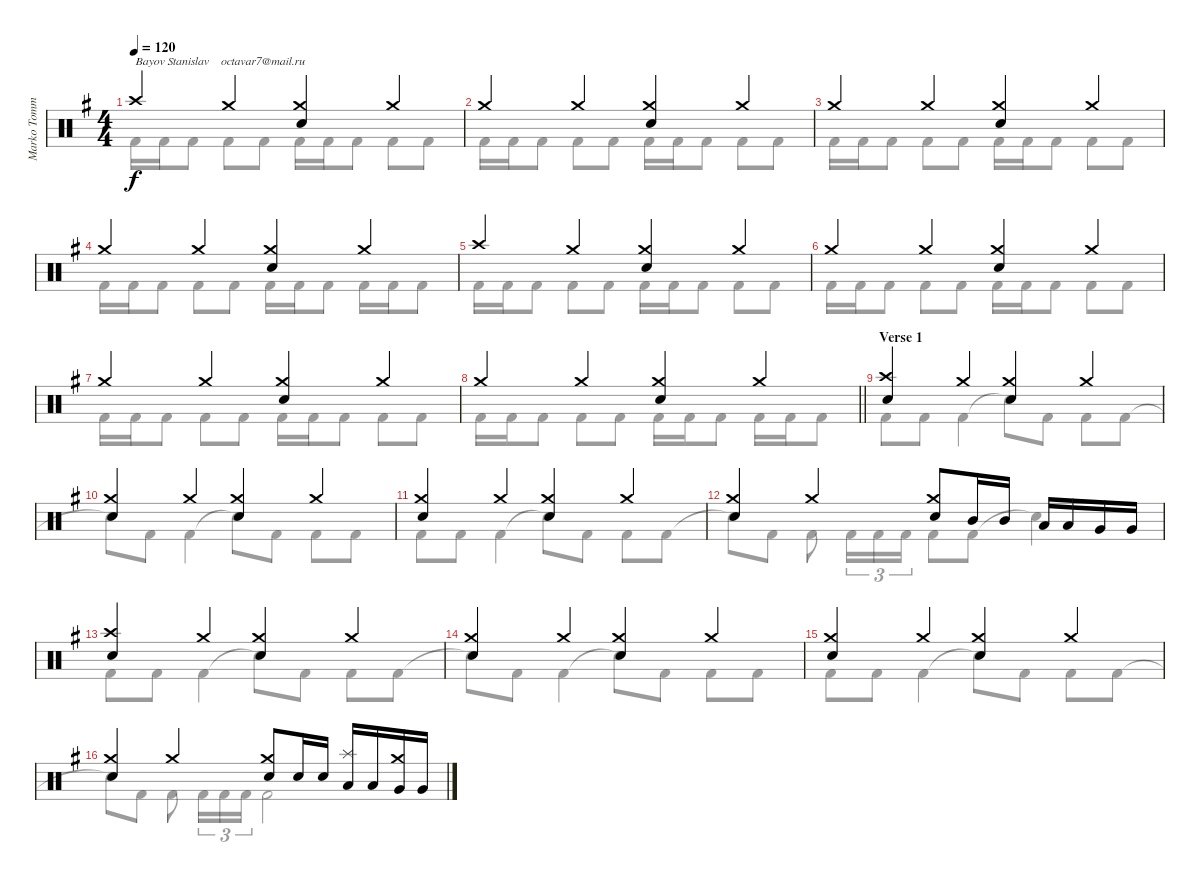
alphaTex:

\track ("Marko Tommila (drums)" "Marko Tomm") {instrument percussion}
\staff {score}
\articulation defaults
\voice
\ts (4 4)
\tempo 120
\clef neutral
\ks eminor "Crash high (hit)".4{txt "Bayov Stanislav    octavar7@mail.ru" dy f} "Crash medium (hit)".4
("Crash medium (hit)" "Electric Snare (hit)").4 "Crash medium (hit)".4 |
"Crash medium (hit)".4 "Crash medium (hit)".4 ("Crash medium (hit)" "Electric Snare (hit)").4 "Crash medium (hit)".4 |
"Crash medium (hit)".4 "Crash medium (hit)".4 ("Crash medium (hit)" "Electric Snare (hit)").4 "Crash medium (hit)".4 |
"Crash medium (hit)".4 "Crash medium (hit)".4 ("Crash medium (hit)" "Electric Snare (hit)").4 "Crash medium (hit)".4 |
"Crash high (hit)".4 "Crash medium (hit)".4 ("Crash medium (hit)" "Electric Snare (hit)").4 "Crash medium (hit)".4 |
"Crash medium (hit)".4 "Crash medium (hit)".4 ("Crash medium (hit)" "Electric Snare (hit)").4 "Crash medium (hit)".4 |
"Crash medium (hit)".4 "Crash medium (hit)".4 ("Crash medium (hit)" "Electric Snare (hit)").4 "Crash medium (hit)".4 |
\barLineRight lightlight "Crash medium (hit)".4 "Crash medium (hit)".4
("Crash medium (hit)" "Electric Snare (hit)").4 "Crash medium (hit)".4 |
\section ("" "Verse 1")
("Crash high (hit)" "Electric Snare (hit)").4 "Crash medium (hit)".4 ("Crash medium (hit)" "Electric Snare (hit)").4 "Crash medium (hit)".4 |
("Crash medium (hit)" "Electric Snare (hit)").4 "Crash medium (hit)".4 ("Crash medium (hit)" "Electric Snare (hit)").4 "Crash medium (hit)".4 |
("Crash medium (hit)" "Electric Snare (hit)").4 "Crash medium (hit)".4 ("Crash medium (hit)" "Electric Snare (hit)").4 "Crash medium (hit)".4 |
("Crash medium (hit)" "Electric Snare (hit)").4 "Crash medium (hit)".4 ("Crash medium (hit)" "Electric Snare (hit)").8 "Mid Tom (hit)".16 "Mid Tom (hit)".16 "Low Tom (hit)".16 "Low Tom (hit)".16 "Very Low Tom (hit)".16 "Very Low Tom (hit)".16 |
("Crash high (hit)" "Electric Snare (hit)").4 "Crash medium (hit)".4 ("Crash medium (hit)" "Electric Snare (hit)").4 "Crash medium (hit)".4 |
("Crash medium (hit)" "Electric Snare (hit)").4 "Crash medium (hit)".4 ("Crash medium (hit)" "Electric Snare (hit)").4 "Crash medium (hit)".4 |
("Crash medium (hit)" "Electric Snare (hit)").4 "Crash medium (hit)".4 ("Crash medium (hit)" "Electric Snare (hit)").4 "Crash medium (hit)".4 |
("Crash medium (hit)" "Electric Snare (hit)").4 "Crash medium (hit)".4 ("Crash medium (hit)" "Electric Snare (hit)").8 "Electric Snare (hit)".16 "Electric Snare (hit)".16 ("Low Tom (hit)" "Splash (hit)").16 "Low Tom (hit)".16 ("Very Low Tom (hit)" "Crash medium (hit)").16 "Very Low Tom (hit)".16
\voice
\clef neutral
\ottava regular
\simile none
\ks eminor "Kick (hit) 2".16{dy f} "Kick (hit) 2".16 "Kick (hit) 2".8 "Kick (hit) 2".8 "Kick (hit) 2".8 "Kick (hit) 2".16 "Kick (hit) 2".16 "Kick (hit) 2".8 "Kick (hit) 2".8 "Kick (hit) 2".8
|
"Kick (hit) 2".16 "Kick (hit) 2".16 "Kick (hit) 2".8 "Kick (hit) 2".8 "Kick (hit) 2".8 "Kick (hit) 2".16 "Kick (hit) 2".16 "Kick (hit) 2".8 "Kick (hit) 2".8 "Kick (hit) 2".8 |
"Kick (hit) 2".16 "Kick (hit) 2".16 "Kick (hit) 2".8 "Kick (hit) 2".8 "Kick (hit) 2".8 "Kick (hit) 2".16 "Kick (hit) 2".16 "Kick (hit) 2".8 "Kick (hit) 2".8 "Kick (hit) 2".8 |
"Kick (hit) 2".16 "Kick (hit) 2".16 "Kick (hit) 2".8 "Kick (hit) 2".8 "Kick (hit) 2".8 "Kick (hit) 2".16 "Kick (hit) 2".16 "Kick (hit) 2".8 "Kick (hit) 2".16 "Kick (hit) 2".16 "Kick (hit) 2".8 |
"Kick (hit) 2".16 "Kick (hit) 2".16 "Kick (hit) 2".8 "Kick (hit) 2".8 "Kick (hit) 2".8 "Kick (hit) 2".16 "Kick (hit) 2".16 "Kick (hit) 2".8 "Kick (hit) 2".8 "Kick (hit) 2".8 |
"Kick (hit) 2".16 "Kick (hit) 2".16 "Kick (hit) 2".8 "Kick (hit) 2".8 "Kick (hit) 2".8 "Kick (hit) 2".16 "Kick (hit) 2".16 "Kick (hit) 2".8 "Kick (hit) 2".8 "Kick (hit) 2".8 |
"Kick (hit) 2".16 "Kick (hit) 2".16 "Kick (hit) 2".8 "Kick (hit) 2".8 "Kick (hit) 2".8 "Kick (hit) 2".16 "Kick (hit) 2".16 "Kick (hit) 2".8 "Kick (hit) 2".8 "Kick (hit) 2".8 |
\barLineRight lightlight "Kick (hit) 2".16 "Kick (hit) 2".16 "Kick (hit) 2".8 "Kick (hit) 2".8 "Kick (hit) 2".8 "Kick (hit) 2".16 "Kick (hit) 2".16 "Kick (hit) 2".8 "Kick (hit) 2".16 "Kick (hit) 2".16 "Kick (hit) 2".8
|
"Kick (hit) 2".8 "Kick (hit) 2".8 "Kick (hit) 2".4 "Snare (hit)"{t}.8 "Kick (hit) 2".8 "Kick (hit) 2".8 "Kick (hit) 2".8 |
"Snare (hit)"{t}.8 "Kick (hit) 2".8 "Kick (hit) 2".4 "Snare (hit)"{t}.8 "Kick (hit) 2".8 "Kick (hit) 2".8 "Kick (hit) 2".8 |
"Kick (hit) 2".8 "Kick (hit) 2".8 "Kick (hit) 2".4 "Snare (hit)"{t}.8 "Kick (hit) 2".8 "Kick (hit) 2".8 "Kick (hit) 2".8 |
"Snare (hit)"{t}.8 "Kick (hit) 2".8 "Kick (hit) 2".8 "Kick (hit) 2".16{tu (3 2)} "Kick (hit) 2".16{tu (3 2)} "Kick (hit) 2".16{tu (3 2)} "Kick (hit) 2".8 "Kick (hit) 2".8 "Snare (hit)"{t}.4 |
"Kick (hit) 2".8 "Kick (hit) 2".8 "Kick (hit) 2".4 "Snare (hit)"{t}.8 "Kick (hit) 2".8 "Kick (hit) 2".8 "Kick (hit) 2".8 |
"Snare (hit)"{t}.8 "Kick (hit) 2".8 "Kick (hit) 2".4 "Snare (hit)"{t}.8 "Kick (hit) 2".8 "Kick (hit) 2".8 "Kick (hit) 2".8 |
"Kick (hit) 2".8 "Kick (hit) 2".8 "Kick (hit) 2".4 "Snare (hit)"{t}.8 "Kick (hit) 2".8 "Kick (hit) 2".8 "Kick (hit) 2".8 |
"Snare (hit)"{t}.8 "Kick (hit) 2".8 "Kick (hit) 2".8 "Kick (hit) 2".16{tu (3 2)} "Kick (hit) 2".16{tu (3 2)} "Kick (hit) 2".16{tu (3 2)} "Kick (hit) 2".2
